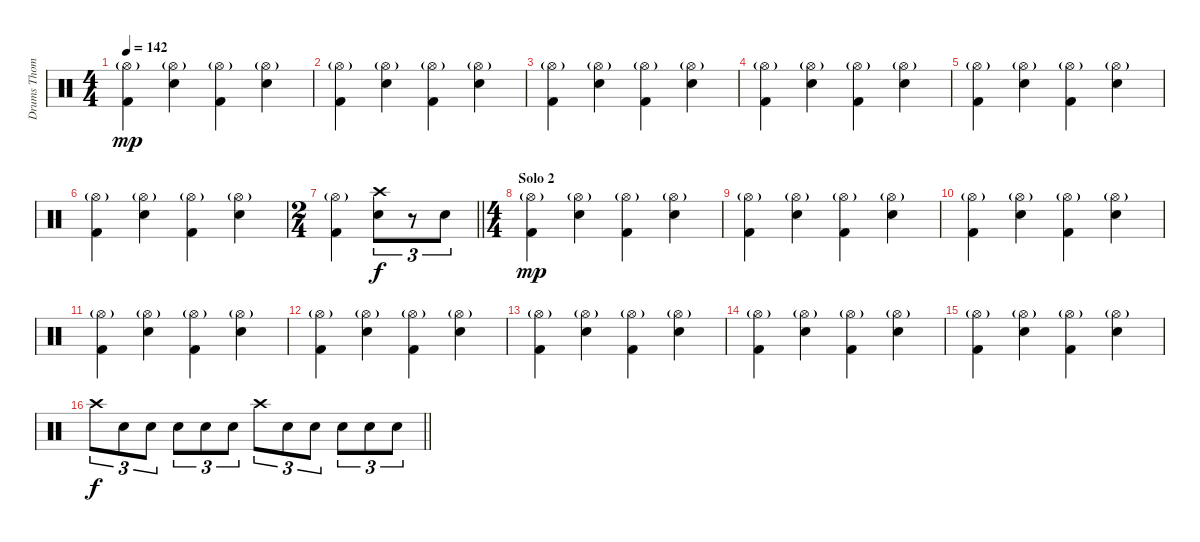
\track ("Drums Thomas Goetz" "Drums Thom") {instrument percussion}
\staff {score}
\articulation defaults
\ts (4 4)
\tempo 142
\clef neutral
\ks c
("Hi-Hat (open)"{g} "Kick (hit) 2").4{dy mp} ("Hi-Hat (open)"{g} "Snare (hit) 2").4 ("Hi-Hat (open)"{g} "Kick (hit) 2").4 ("Hi-Hat (open)"{g} "Snare (hit) 2").4 |
("Hi-Hat (open)"{g} "Kick (hit) 2").4 ("Hi-Hat (open)"{g} "Snare (hit) 2").4 ("Hi-Hat (open)"{g} "Kick (hit) 2").4 ("Hi-Hat (open)"{g} "Snare (hit) 2").4 |
("Hi-Hat (open)"{g} "Kick (hit) 2").4 ("Hi-Hat (open)"{g} "Snare (hit) 2").4 ("Hi-Hat (open)"{g} "Kick (hit) 2").4 ("Hi-Hat (open)"{g} "Snare (hit) 2").4 |
("Hi-Hat (open)"{g} "Kick (hit) 2").4 ("Hi-Hat (open)"{g} "Snare (hit) 2").4 ("Hi-Hat (open)"{g} "Kick (hit) 2").4 ("Hi-Hat (open)"{g} "Snare (hit) 2").4 |
("Hi-Hat (open)"{g} "Kick (hit) 2").4 ("Hi-Hat (open)"{g} "Snare (hit) 2").4 ("Hi-Hat (open)"{g} "Kick (hit) 2").4 ("Hi-Hat (open)"{g} "Snare (hit) 2").4 |
("Hi-Hat (open)"{g} "Kick (hit) 2").4 ("Hi-Hat (open)"{g} "Snare (hit) 2").4 ("Hi-Hat (open)"{g} "Kick (hit) 2").4 ("Hi-Hat (open)"{g} "Snare (hit) 2").4 |
\ts (2 4)
\barLineRight lightlight
("Hi-Hat (open)"{g} "Kick (hit) 2").4 ("Crash high (hit)" "Snare (hit) 2").8{tu (3 2) dy f} r.8{tu (3 2)} "Snare (hit) 2".8{tu (3 2)} |
\ts (4 4)
\section ("" "Solo 2")
("Hi-Hat (open)"{g} "Kick (hit) 2").4{dy mp} ("Hi-Hat (open)"{g} "Snare (hit) 2").4 ("Hi-Hat (open)"{g} "Kick (hit) 2").4 ("Hi-Hat (open)"{g} "Snare (hit) 2").4 |
("Hi-Hat (open)"{g} "Kick (hit) 2").4 ("Hi-Hat (open)"{g} "Snare (hit) 2").4 ("Hi-Hat (open)"{g} "Kick (hit) 2").4 ("Hi-Hat (open)"{g} "Snare (hit) 2").4 |
("Hi-Hat (open)"{g} "Kick (hit) 2").4 ("Hi-Hat (open)"{g} "Snare (hit) 2").4 ("Hi-Hat (open)"{g} "Kick (hit) 2").4 ("Hi-Hat (open)"{g} "Snare (hit) 2").4 |
("Hi-Hat (open)"{g} "Kick (hit) 2").4 ("Hi-Hat (open)"{g} "Snare (hit) 2").4 ("Hi-Hat (open)"{g} "Kick (hit) 2").4 ("Hi-Hat (open)"{g} "Snare (hit) 2").4 |
("Hi-Hat (open)"{g} "Kick (hit) 2").4 ("Hi-Hat (open)"{g} "Snare (hit) 2").4 ("Hi-Hat (open)"{g} "Kick (hit) 2").4 ("Hi-Hat (open)"{g} "Snare (hit) 2").4 |
("Hi-Hat (open)"{g} "Kick (hit) 2").4 ("Hi-Hat (open)"{g} "Snare (hit) 2").4 ("Hi-Hat (open)"{g} "Kick (hit) 2").4 ("Hi-Hat (open)"{g} "Snare (hit) 2").4 |
("Hi-Hat (open)"{g} "Kick (hit) 2").4 ("Hi-Hat (open)"{g} "Snare (hit) 2").4 ("Hi-Hat (open)"{g} "Kick (hit) 2").4 ("Hi-Hat (open)"{g} "Snare (hit) 2").4 |
("Hi-Hat (open)"{g} "Kick (hit) 2").4 ("Hi-Hat (open)"{g} "Snare (hit) 2").4 ("Hi-Hat (open)"{g} "Kick (hit) 2").4 ("Hi-Hat (open)"{g} "Snare (hit) 2").4 |
\barLineRight lightlight "Crash high (hit)".8{tu (3 2) dy f} "Snare (hit) 2".8{tu (3 2)} "Snare (hit) 2".8{tu (3 2)} "Snare (hit) 2".8{tu (3 2)} "Snare (hit) 2".8{tu (3 2)} "Snare (hit) 2".8{tu (3 2)} "Crash high (hit)".8{tu (3 2)} "Snare (hit) 2".8{tu (3 2)} "Snare (hit) 2".8{tu (3 2)} "Snare (hit) 2".8{tu (3 2)} "Snare (hit) 2".8{tu (3 2)} "Snare (hit) 2".8{tu (3 2)}
